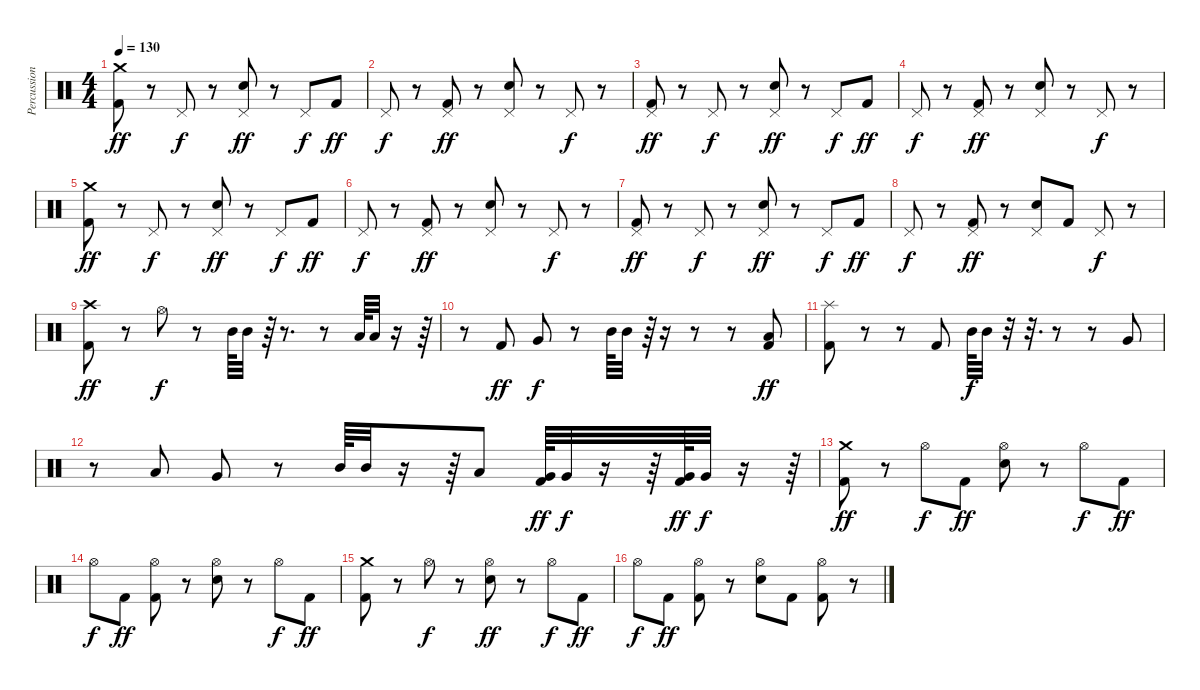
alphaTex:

\track ("Percussion" "Percussion") {instrument percussion}
\staff {score}
\articulation defaults
\ts (4 4)
\tempo 130
\clef neutral
\ks c
("Crash medium (hit)" "Kick (hit) 2").8{dy ff} r.8 "Pedal Hi-Hat (hit)".8{dy f} r.8 ("Pedal Hi-Hat (hit)" "Electric Snare (hit)").8{dy ff} r.8 "Pedal Hi-Hat (hit)".8{dy f} "Kick (hit) 2".8{dy ff} |
"Pedal Hi-Hat (hit)".8{dy f} r.8 ("Pedal Hi-Hat (hit)" "Kick (hit) 2").8{dy ff} r.8 ("Pedal Hi-Hat (hit)" "Electric Snare (hit)").8 r.8 "Pedal Hi-Hat (hit)".8{dy f} r.8 |
("Pedal Hi-Hat (hit)" "Kick (hit) 2").8{dy ff} r.8 "Pedal Hi-Hat (hit)".8{dy f} r.8 ("Pedal Hi-Hat (hit)" "Electric Snare (hit)").8{dy ff} r.8 "Pedal Hi-Hat (hit)".8{dy f} "Kick (hit) 2".8{dy ff} |
"Pedal Hi-Hat (hit)".8{dy f} r.8 ("Pedal Hi-Hat (hit)" "Kick (hit) 2").8{dy ff} r.8 ("Pedal Hi-Hat (hit)" "Electric Snare (hit)").8 r.8 "Pedal Hi-Hat (hit)".8{dy f} r.8 |
("Crash medium (hit)" "Kick (hit) 2").8{dy ff} r.8 "Pedal Hi-Hat (hit)".8{dy f} r.8 ("Pedal Hi-Hat (hit)" "Electric Snare (hit)").8{dy ff} r.8 "Pedal Hi-Hat (hit)".8{dy f} "Kick (hit) 2".8{dy ff} |
"Pedal Hi-Hat (hit)".8{dy f} r.8 ("Pedal Hi-Hat (hit)" "Kick (hit) 2").8{dy ff} r.8 ("Pedal Hi-Hat (hit)" "Electric Snare (hit)").8 r.8 "Pedal Hi-Hat (hit)".8{dy f} r.8 |
("Pedal Hi-Hat (hit)" "Kick (hit) 2").8{dy ff} r.8 "Pedal Hi-Hat (hit)".8{dy f} r.8 ("Pedal Hi-Hat (hit)" "Electric Snare (hit)").8{dy ff} r.8 "Pedal Hi-Hat (hit)".8{dy f} "Kick (hit) 2".8{dy ff} |
"Pedal Hi-Hat (hit)".8{dy f} r.8 ("Pedal Hi-Hat (hit)" "Kick (hit) 2").8{dy ff} r.8 ("Pedal Hi-Hat (hit)" "Electric Snare (hit)").8 "Kick (hit) 2".8 "Pedal Hi-Hat (hit)".8{dy f} r.8 |
("Crash high (hit)" "Kick (hit) 2").8{dy ff} r.8 "Hi-Hat (open)".8{dy f} r.8 "Mid Tom (hit)".64 "Mid Tom (hit)".32 r.64 r.8{d} r.8 "Low Tom (hit)".64 "Low Tom (hit)".32 r.16 r.64 |
r.8 "Kick (hit) 2".8{dy ff} "Very Low Tom (hit)".8{dy f} r.8 "Mid Tom (hit)".64 "Mid Tom (hit)".32 r.64 r.16 r.8 r.8 ("Low Floor Tom (hit)" "Kick (hit) 2").8{dy ff} |
("Splash (hit)" "Kick (hit) 2").8 r.8 r.8 "Kick (hit) 2".8 "Mid Tom (hit)".64{dy f} "Mid Tom (hit)".32 r.32 r.32{d} r.8 r.8 "Very Low Tom (hit)".8 |
r.8 "Low Floor Tom (hit)".8 "Very Low Tom (hit)".8 r.8 "Mid Tom (hit)".64 "Mid Tom (hit)".32 r.16 r.64 "Low Tom (hit)".8 ("Very Low Tom (hit)" "Kick (hit) 2").64{dy ff} "Very Low Tom (hit)".32{dy f} r.16 r.64 ("Very Low Tom (hit)" "Kick (hit) 2").64{dy ff} "Very Low Tom (hit)".32{dy f} r.16 r.64 |
("Crash medium (hit)" "Kick (hit) 2").8{dy ff} r.8 "Hi-Hat (open)".8{dy f} "Kick (hit) 2".8{dy ff} ("Hi-Hat (open)" "Electric Snare (hit)").8 r.8 "Hi-Hat (open)".8{dy f} "Kick (hit) 2".8{dy ff} |
"Hi-Hat (open)".8{dy f} "Kick (hit) 2".8{dy ff} ("Hi-Hat (open)" "Kick (hit) 2").8 r.8 ("Hi-Hat (open)" "Electric Snare (hit)").8 r.8 "Hi-Hat (open)".8{dy f} "Kick (hit) 2".8{dy ff} |
("Crash medium (hit)" "Kick (hit) 2").8 r.8 "Hi-Hat (open)".8{dy f} r.8 ("Hi-Hat (open)" "Electric Snare (hit)").8{dy ff} r.8 "Hi-Hat (open)".8{dy f} "Kick (hit) 2".8{dy ff} |
"Hi-Hat (open)".8{dy f} "Kick (hit) 2".8{dy ff} ("Hi-Hat (open)" "Kick (hit) 2").8 r.8 ("Hi-Hat (open)" "Electric Snare (hit)").8 "Kick (hit) 2".8 ("Hi-Hat (open)" "Kick (hit) 2").8 r.8
